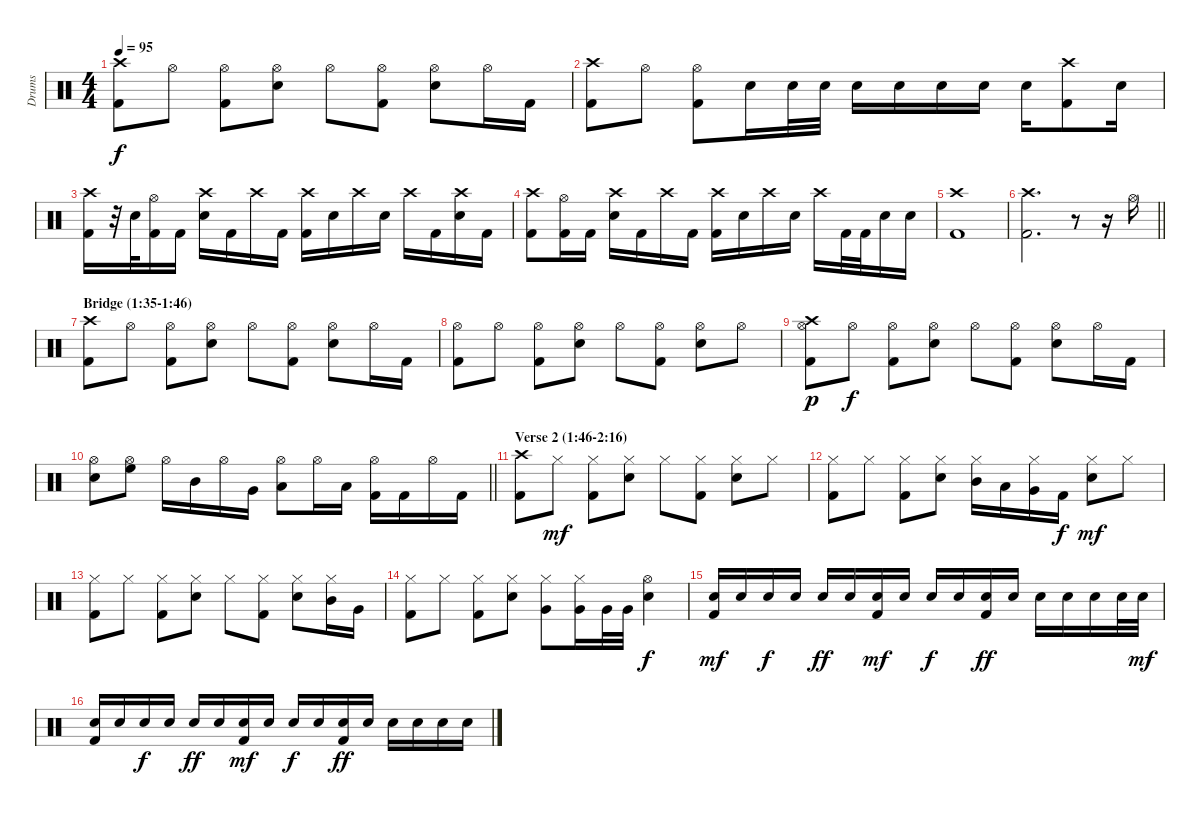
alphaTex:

\track ("Drums" "Drums") {instrument percussion}
\staff {score}
\articulation defaults
\ts (4 4)
\tempo 95
\clef neutral
\ks c
("Crash high (hit)" "Kick (hit) 2").8{dy f} "Hi-Hat (open)".8 ("Hi-Hat (open)" "Kick (hit) 2").8 ("Hi-Hat (open)" "Snare (hit) 2").8 "Hi-Hat (open)".8 ("Hi-Hat (open)" "Kick (hit) 2").8 ("Hi-Hat (open)" "Snare (hit) 2").8 "Hi-Hat (open)".16 "Kick (hit) 2".16 |
("Crash high (hit)" "Kick (hit) 2").8 "Hi-Hat (open)".8 ("Hi-Hat (open)" "Kick (hit) 2").8 "Snare (hit) 2".16 "Snare (hit) 2".32 "Snare (hit) 2".32 "Snare (hit) 2".16 "Snare (hit) 2".16 "Snare (hit) 2".16 "Snare (hit) 2".16 "Snare (hit) 2".16 ("Crash high (hit)" "Kick (hit) 2").8 "Snare (hit) 2".16 |
("Crash high (hit)" "Kick (hit) 2").16 r.32 "Snare (hit) 2".32 ("Hi-Hat (open)" "Kick (hit) 2").16 "Kick (hit) 2".16 ("Crash high (hit)" "Snare (hit) 2").16 "Kick (hit) 2".16 "Crash high (hit)".16 "Kick (hit) 2".16 ("Crash high (hit)" "Kick (hit) 2").16 "Snare (hit) 2".16 "Crash high (hit)".16 "Snare (hit) 2".16 "Crash high (hit)".16 "Kick (hit) 2".16 ("Crash high (hit)" "Snare (hit) 2").16 "Kick (hit) 2".16 |
("Crash high (hit)" "Kick (hit) 2").8 ("Hi-Hat (open)" "Kick (hit) 2").16 "Kick (hit) 2".16 ("Crash high (hit)" "Snare (hit) 2").16 "Kick (hit) 2".16 "Crash high (hit)".16 "Kick (hit) 2".16 ("Crash high (hit)" "Kick (hit) 2").16 "Snare (hit) 2".16 "Crash high (hit)".16 "Snare (hit) 2".16 "Crash high (hit)".16 "Kick (hit) 2".32 "Kick (hit) 2".32 "Snare (hit) 2".16 "Snare (hit) 2".16 |
("Kick (hit) 2" "Crash high (hit)").1 |
\barLineRight lightlight
("Kick (hit) 2" "Crash high (hit)").2{d} r.8 r.16 "Hi-Hat (open)".16 |
\section ("" "Bridge (1:35-1:46)")
("Kick (hit) 2" "Crash high (hit)").8 "Hi-Hat (open)".8 ("Hi-Hat (open)" "Kick (hit) 2").8 ("Hi-Hat (open)" "Snare (hit) 2").8 "Hi-Hat (open)".8 ("Hi-Hat (open)" "Kick (hit) 2").8 ("Hi-Hat (open)" "Snare (hit) 2").8 "Hi-Hat (open)".16 "Kick (hit) 2".16 |
("Hi-Hat (open)" "Kick (hit) 2").8 "Hi-Hat (open)".8 ("Hi-Hat (open)" "Kick (hit) 2").8 ("Hi-Hat (open)" "Snare (hit) 2").8 "Hi-Hat (open)".8 ("Hi-Hat (open)" "Kick (hit) 2").8 ("Hi-Hat (open)" "Snare (hit) 2").8 "Hi-Hat (open)".8 |
("Kick (hit) 2" "Hi-Hat (open)" "Crash high (hit)").8{dy p} "Hi-Hat (open)".8{dy f} ("Hi-Hat (open)" "Kick (hit) 2").8 ("Hi-Hat (open)" "Snare (hit) 2").8 "Hi-Hat (open)".8 ("Hi-Hat (open)" "Kick (hit) 2").8 ("Hi-Hat (open)" "Snare (hit) 2").8 "Hi-Hat (open)".16 "Kick (hit) 2".16 |
\barLineRight lightlight
("Hi-Hat (open)" "Snare (hit) 2").8 ("Hi-Hat (open)" "High Floor Tom (hit)").8 "Hi-Hat (open)".16 "Mid Tom (hit)".16 "Hi-Hat (open)".16 "Very Low Tom (hit)".16 ("Hi-Hat (open)" "Low Floor Tom (hit)").8 "Hi-Hat (open)".16 "Low Floor Tom (hit)".16 ("Hi-Hat (open)" "Kick (hit) 2").16 "Kick (hit) 2".16 "Hi-Hat (open)".16 "Kick (hit) 2".16 |
\section ("" "Verse 2 (1:46-2:16)")
("Crash high (hit)" "Kick (hit) 2").8 "Hi-Hat (closed)".8{dy mf} ("Hi-Hat (closed)" "Kick (hit) 2").8 ("Hi-Hat (closed)" "Snare (hit) 2").8 "Hi-Hat (closed)".8 ("Hi-Hat (closed)" "Kick (hit) 2").8 ("Hi-Hat (closed)" "Snare (hit) 2").8 "Hi-Hat (closed)".8 |
("Hi-Hat (closed)" "Kick (hit) 2").8 "Hi-Hat (closed)".8 ("Hi-Hat (closed)" "Kick (hit) 2").8 ("Hi-Hat (closed)" "Snare (hit) 2").8 ("Hi-Hat (closed)" "Mid Tom (hit)").16 "Low Tom (hit)".16 ("Hi-Hat (closed)" "Very Low Tom (hit)").16 "Kick (hit) 2".16{dy f} ("Hi-Hat (closed)" "Snare (hit) 2").8{dy mf} "Hi-Hat (closed)".8 |
("Hi-Hat (closed)" "Kick (hit) 2").8 "Hi-Hat (closed)".8 ("Hi-Hat (closed)" "Kick (hit) 2").8 ("Hi-Hat (closed)" "Snare (hit) 2").8 "Hi-Hat (closed)".8 ("Hi-Hat (closed)" "Kick (hit) 2").8 ("Hi-Hat (closed)" "Snare (hit) 2").8 ("Hi-Hat (closed)" "Mid Tom (hit)").16 "Very Low Tom (hit)".16 |
("Hi-Hat (closed)" "Kick (hit) 2").8 "Hi-Hat (closed)".8 ("Hi-Hat (closed)" "Kick (hit) 2").8 ("Hi-Hat (closed)" "Snare (hit) 2").8 ("Hi-Hat (closed)" "Very Low Tom (hit)").8 ("Hi-Hat (closed)" "Very Low Tom (hit)").16 "Very Low Tom (hit)".32 "Very Low Tom (hit)".32 ("Hi-Hat (open)" "Snare (hit) 2").4{dy f} |
("Snare (hit) 2" "Kick (hit) 2").16{dy mf} "Snare (hit) 2".16 "Snare (hit) 2".16{dy f} "Snare (hit) 2".16 "Snare (hit) 2".16{dy ff} "Snare (hit) 2".16 ("Snare (hit) 2" "Kick (hit) 2").16{dy mf} "Snare (hit) 2".16 "Snare (hit) 2".16{dy f} "Snare (hit) 2".16 ("Snare (hit) 2" "Kick (hit) 2").16{dy ff} "Snare (hit) 2".16 "Snare (hit) 2".16 "Snare (hit) 2".16 "Snare (hit) 2".16 "Snare (hit) 2".32 "Snare (hit) 2".32{dy mf} |
("Snare (hit) 2" "Kick (hit) 2").16 "Snare (hit) 2".16 "Snare (hit) 2".16{dy f} "Snare (hit) 2".16 "Snare (hit) 2".16{dy ff} "Snare (hit) 2".16 ("Snare (hit) 2" "Kick (hit) 2").16{dy mf} "Snare (hit) 2".16 "Snare (hit) 2".16{dy f} "Snare (hit) 2".16 ("Snare (hit) 2" "Kick (hit) 2").16{dy ff} "Snare (hit) 2".16 "Snare (hit) 2".16 "Snare (hit) 2".16 "Snare (hit) 2".16 "Snare (hit) 2".16
